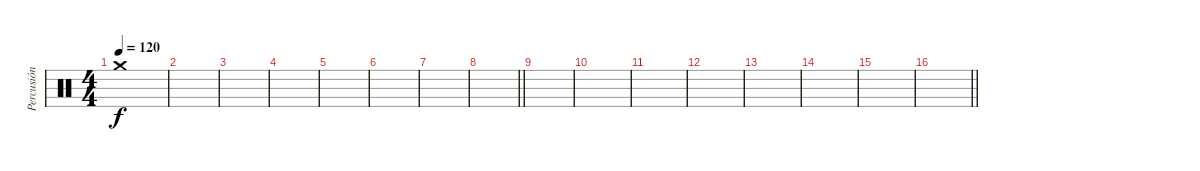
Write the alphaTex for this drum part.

\track ("Percusión" "Percusión") {instrument percussion}
\staff {score}
\articulation defaults
\ts (4 4)
\tempo 120
\clef neutral
\ks c "Crash medium (hit)".1{dy f}
|
|
|
|
|
|
|
\barLineRight lightlight
|
|
|
|
|
|
|
|
\barLineRight lightlight
